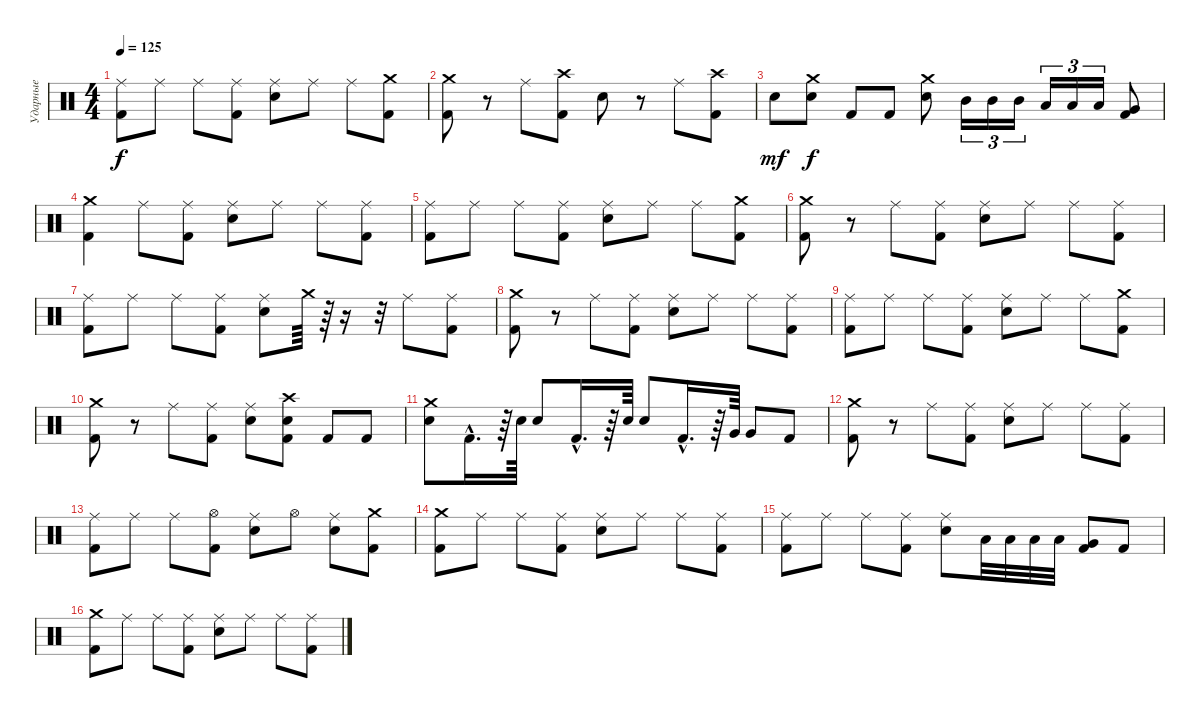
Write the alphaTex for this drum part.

\track ("Ударные" "Ударные") {instrument percussion}
\staff {score}
\articulation defaults
\ts (4 4)
\tempo 125
\clef neutral
\ks c
("Ride (middle)" "Kick (hit) 2").8{dy f} "Ride (middle)".8 "Ride (middle)".8 ("Ride (middle)" "Kick (hit) 2").8 ("Ride (middle)" "Electric Snare (hit)").8 "Ride (middle)".8 "Ride (middle)".8 ("Crash medium (hit)" "Kick (hit) 2").8 |
("Crash medium (hit)" "Kick (hit) 2").8 r.8 "Ride (middle)".8 ("Crash high (hit)" "Kick (hit) 2").8 "Electric Snare (hit)".8 r.8 "Ride (middle)".8 ("Crash high (hit)" "Kick (hit) 2").8 |
"Electric Snare (hit)".8{dy mf} ("Crash medium (hit)" "Electric Snare (hit)").8{dy f} "Kick (hit) 2".8 "Kick (hit) 2".8 ("Crash medium (hit)" "Electric Snare (hit)").8 "Mid Tom (hit)".16{tu (3 2)} "Mid Tom (hit)".16{tu (3 2)} "Mid Tom (hit)".16{tu (3 2)} "Low Tom (hit)".16{tu (3 2)} "Low Tom (hit)".16{tu (3 2)} "Low Tom (hit)".16{tu (3 2)} ("Very Low Tom (hit)" "Kick (hit) 2").8 |
("Crash medium (hit)" "Kick (hit) 2").4 "Ride (middle)".8 ("Ride (middle)" "Kick (hit) 2").8 ("Ride (middle)" "Electric Snare (hit)").8 "Ride (middle)".8 "Ride (middle)".8 ("Ride (middle)" "Kick (hit) 2").8 |
("Ride (middle)" "Kick (hit) 2").8 "Ride (middle)".8 "Ride (middle)".8 ("Ride (middle)" "Kick (hit) 2").8 ("Ride (middle)" "Electric Snare (hit)").8 "Ride (middle)".8 "Ride (middle)".8 ("Crash medium (hit)" "Kick (hit) 2").8 |
("Crash medium (hit)" "Kick (hit) 2").8 r.8 "Ride (middle)".8 ("Ride (middle)" "Kick (hit) 2").8 ("Ride (middle)" "Electric Snare (hit)").8 "Ride (middle)".8 "Ride (middle)".8 ("Ride (middle)" "Kick (hit) 2").8 |
("Ride (middle)" "Kick (hit) 2").8 "Ride (middle)".8 "Ride (middle)".8 ("Ride (middle)" "Kick (hit) 2").8 ("Ride (middle)" "Electric Snare (hit)").8 "Crash medium (hit)".64 r.64 r.16 r.32 "Ride (middle)".8 ("Ride (middle)" "Kick (hit) 2").8 |
("Crash medium (hit)" "Kick (hit) 2").8 r.8 "Ride (middle)".8 ("Ride (middle)" "Kick (hit) 2").8 ("Ride (middle)" "Electric Snare (hit)").8 "Ride (middle)".8 "Ride (middle)".8 ("Ride (middle)" "Kick (hit) 2").8 |
("Ride (middle)" "Kick (hit) 2").8 "Ride (middle)".8 "Ride (middle)".8 ("Ride (middle)" "Kick (hit) 2").8 ("Ride (middle)" "Electric Snare (hit)").8 "Ride (middle)".8 "Ride (middle)".8 ("Crash medium (hit)" "Kick (hit) 2").8 |
("Crash medium (hit)" "Kick (hit) 2").8 r.8 "Ride (middle)".8 ("Ride (middle)" "Kick (hit) 2").8 ("Ride (middle)" "Electric Snare (hit)").8 ("Crash high (hit)" "Electric Snare (hit)" "Kick (hit) 2").8 "Kick (hit) 2".8 "Kick (hit) 2".8 |
("Crash medium (hit)" "Electric Snare (hit)").8 "Kick (hit) 2"{hac}.16{d} r.64 "Electric Snare (hit)".64 "Electric Snare (hit)".8 "Kick (hit) 2"{hac}.16{d} r.64 "Electric Snare (hit)".64 "Electric Snare (hit)".8 "Kick (hit) 2"{hac}.16{d} r.64 "Very Low Tom (hit)".64 "Very Low Tom (hit)".8 "Kick (hit) 2".8 |
("Crash medium (hit)" "Kick (hit) 2").8 r.8 "Ride (middle)".8 ("Ride (middle)" "Kick (hit) 2").8 ("Ride (middle)" "Electric Snare (hit)").8 "Ride (middle)".8 "Ride (middle)".8 ("Ride (middle)" "Kick (hit) 2").8 |
("Ride (middle)" "Kick (hit) 2").8 "Ride (middle)".8 "Ride (middle)".8 ("Hi-Hat (open)" "Kick (hit) 2").8 ("Ride (middle)" "Electric Snare (hit)").8 "Hi-Hat (open)".8 ("Ride (middle)" "Electric Snare (hit)").8 ("Crash medium (hit)" "Kick (hit) 2").8 |
("Crash medium (hit)" "Kick (hit) 2").8 "Ride (middle)".8 "Ride (middle)".8 ("Ride (middle)" "Kick (hit) 2").8 ("Ride (middle)" "Electric Snare (hit)").8 "Ride (middle)".8 "Ride (middle)".8 ("Ride (middle)" "Kick (hit) 2").8 |
("Ride (middle)" "Kick (hit) 2").8 "Ride (middle)".8 "Ride (middle)".8 ("Ride (middle)" "Kick (hit) 2").8 ("Ride (middle)" "Electric Snare (hit)").8 "Low Tom (hit)".32 "Low Tom (hit)".32 "Low Tom (hit)".32 "Low Tom (hit)".32 ("Very Low Tom (hit)" "Kick (hit) 2").8 "Kick (hit) 2".8 |
("Crash medium (hit)" "Kick (hit) 2").8 "Ride (middle)".8 "Ride (middle)".8 ("Ride (middle)" "Kick (hit) 2").8 ("Ride (middle)" "Electric Snare (hit)").8 "Ride (middle)".8 "Ride (middle)".8 ("Ride (middle)" "Kick (hit) 2").8
